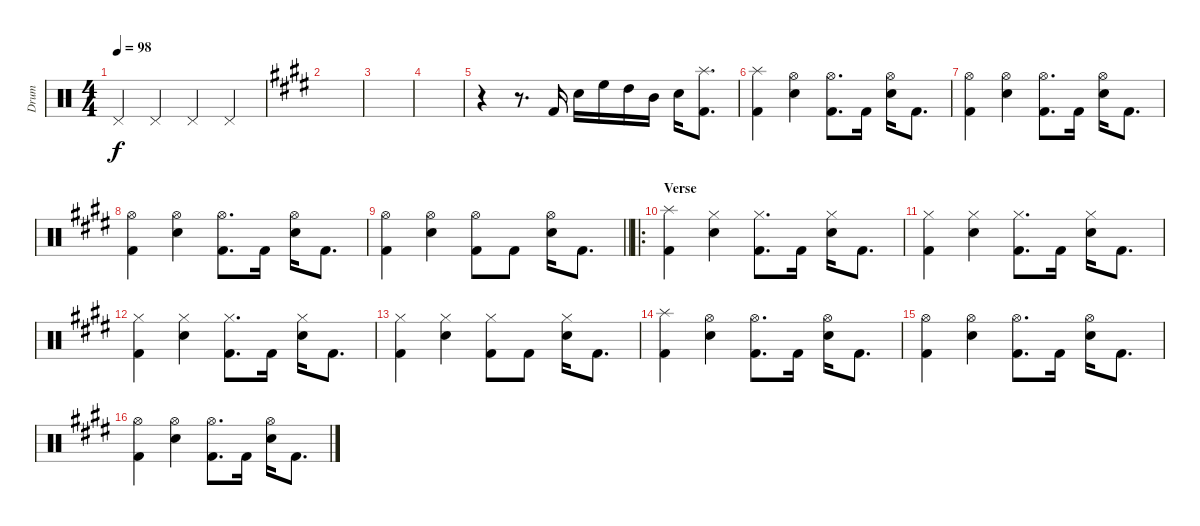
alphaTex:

\track ("Drum" "Drum") {instrument percussion}
\staff {score}
\articulation defaults
\ts (4 4)
\tempo 98
\clef neutral
\ks c "Pedal Hi-Hat (hit)".4{dy f} "Pedal Hi-Hat (hit)".4 "Pedal Hi-Hat (hit)".4 "Pedal Hi-Hat (hit)".4
|
\ks e
|
\ks c#minor
|
|
r.4 r.8{d} "Kick (hit) 2".16 "Snare (hit) 2".16 "High Floor Tom (hit)".16 "High Tom (hit)".16 "Mid Tom (hit)".16 "Snare (hit) 2".16 ("Kick (hit) 2" "Splash (hit)").8{d} |
("Kick (hit) 2" "Splash (hit)").4 ("Snare (hit) 2" "Hi-Hat (open)").4 ("Kick (hit) 2" "Hi-Hat (open)").8{d} "Kick (hit) 2".16 ("Snare (hit) 2" "Hi-Hat (open)").16 "Kick (hit) 2".8{d} |
("Kick (hit) 2" "Hi-Hat (open)").4 ("Snare (hit) 2" "Hi-Hat (open)").4 ("Kick (hit) 2" "Hi-Hat (open)").8{d} "Kick (hit) 2".16 ("Snare (hit) 2" "Hi-Hat (open)").16 "Kick (hit) 2".8{d} |
\ks e
("Kick (hit) 2" "Hi-Hat (open)").4 ("Snare (hit) 2" "Hi-Hat (open)").4 ("Kick (hit) 2" "Hi-Hat (open)").8{d} "Kick (hit) 2".16 ("Snare (hit) 2" "Hi-Hat (open)").16 "Kick (hit) 2".8{d} |
\barLineRight lightlight
\ks c#minor
("Kick (hit) 2" "Hi-Hat (open)").4 ("Snare (hit) 2" "Hi-Hat (open)").4 ("Kick (hit) 2" "Hi-Hat (open)").8 "Kick (hit) 2".8 ("Snare (hit) 2" "Hi-Hat (open)").16 "Kick (hit) 2".8{d} |
\ro
\section ("" "Verse")
("Kick (hit) 2" "Splash (hit)").4 ("Snare (hit) 2" "Hi-Hat (closed)").4 ("Kick (hit) 2" "Hi-Hat (closed)").8{d} "Kick (hit) 2".16 ("Snare (hit) 2" "Hi-Hat (closed)").16 "Kick (hit) 2".8{d} |
\ks e
("Kick (hit) 2" "Hi-Hat (closed)").4 ("Snare (hit) 2" "Hi-Hat (closed)").4 ("Kick (hit) 2" "Hi-Hat (closed)").8{d} "Kick (hit) 2".16 ("Snare (hit) 2" "Hi-Hat (closed)").16 "Kick (hit) 2".8{d} |
\ks c#minor
("Kick (hit) 2" "Hi-Hat (closed)").4 ("Snare (hit) 2" "Hi-Hat (closed)").4 ("Kick (hit) 2" "Hi-Hat (closed)").8{d} "Kick (hit) 2".16 ("Snare (hit) 2" "Hi-Hat (closed)").16 "Kick (hit) 2".8{d} |
("Kick (hit) 2" "Hi-Hat (closed)").4 ("Snare (hit) 2" "Hi-Hat (closed)").4 ("Kick (hit) 2" "Hi-Hat (closed)").8 "Kick (hit) 2".8 ("Snare (hit) 2" "Hi-Hat (closed)").16 "Kick (hit) 2".8{d} |
("Kick (hit) 2" "Splash (hit)").4 ("Snare (hit) 2" "Hi-Hat (open)").4 ("Kick (hit) 2" "Hi-Hat (open)").8{d} "Kick (hit) 2".16 ("Snare (hit) 2" "Hi-Hat (open)").16 "Kick (hit) 2".8{d} |
("Kick (hit) 2" "Hi-Hat (open)").4 ("Snare (hit) 2" "Hi-Hat (open)").4 ("Kick (hit) 2" "Hi-Hat (open)").8{d} "Kick (hit) 2".16 ("Snare (hit) 2" "Hi-Hat (open)").16 "Kick (hit) 2".8{d} |
\ks e
("Kick (hit) 2" "Hi-Hat (open)").4 ("Snare (hit) 2" "Hi-Hat (open)").4 ("Kick (hit) 2" "Hi-Hat (open)").8{d} "Kick (hit) 2".16 ("Snare (hit) 2" "Hi-Hat (open)").16 "Kick (hit) 2".8{d}
